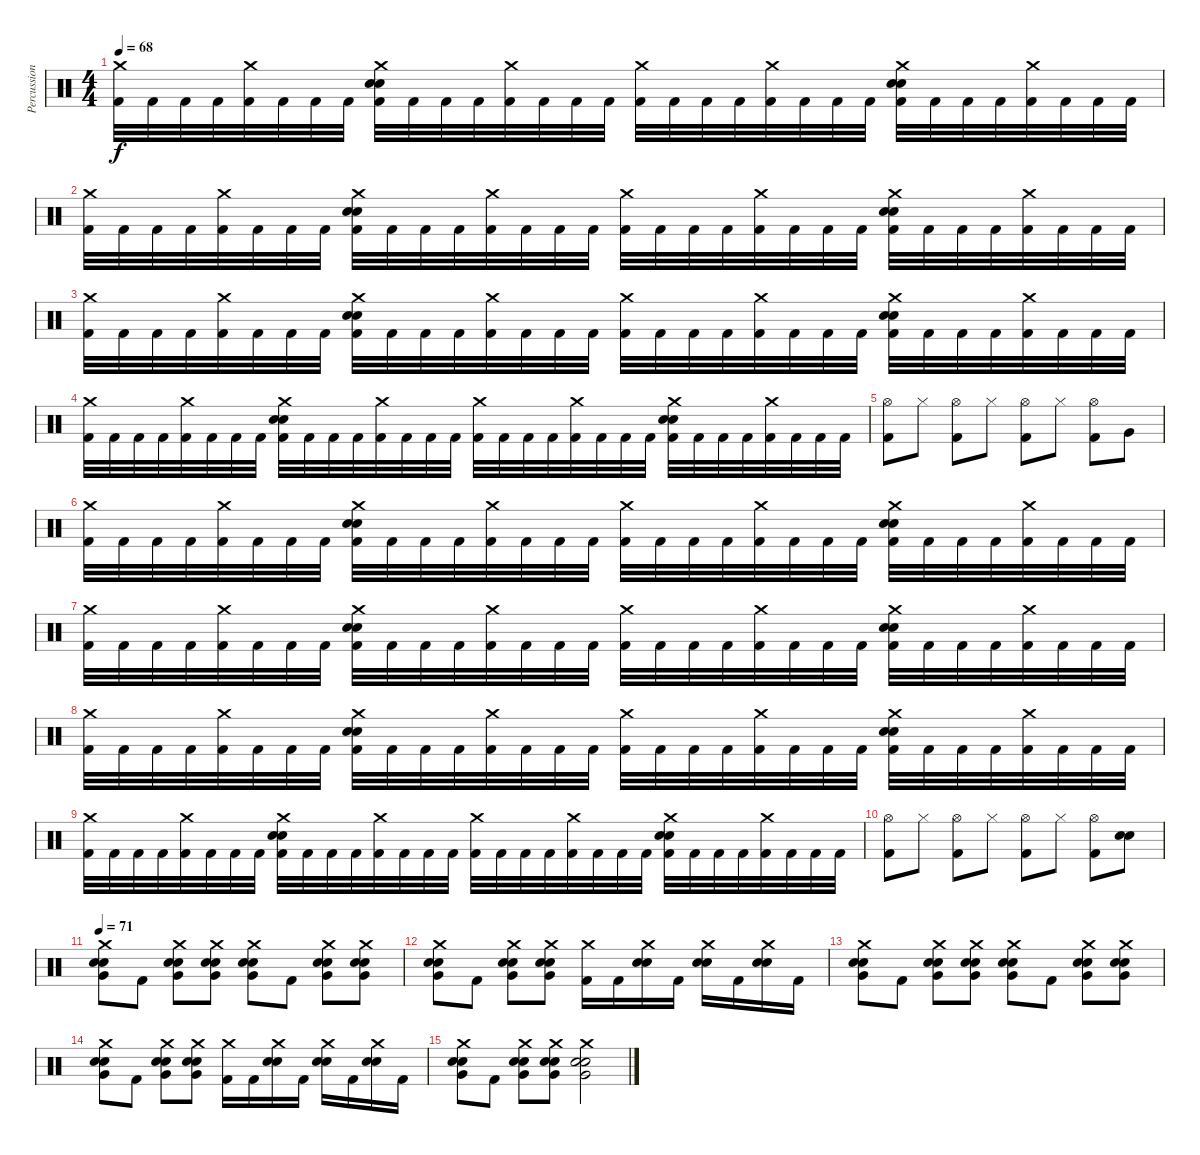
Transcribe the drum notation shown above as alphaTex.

\track ("Percussion" "Percussion") {instrument percussion}
\staff {score}
\articulation defaults
\ts (4 4)
\tempo 68
\clef neutral
\ks c
("Crash medium (hit)" "Kick (hit) 2").32{dy f} "Kick (hit) 2".32 "Kick (hit) 2".32 "Kick (hit) 2".32 ("Crash medium (hit)" "Kick (hit) 2").32 "Kick (hit) 2".32 "Kick (hit) 2".32 "Kick (hit) 2".32 ("Crash medium (hit)" "Electric Snare (hit)" "Electric Snare (hit)" "Kick (hit) 2").32 "Kick (hit) 2".32 "Kick (hit) 2".32 "Kick (hit) 2".32 ("Crash medium (hit)" "Kick (hit) 2").32 "Kick (hit) 2".32 "Kick (hit) 2".32 "Kick (hit) 2".32 ("Crash medium (hit)" "Kick (hit) 2").32 "Kick (hit) 2".32 "Kick (hit) 2".32 "Kick (hit) 2".32 ("Crash medium (hit)" "Kick (hit) 2").32 "Kick (hit) 2".32 "Kick (hit) 2".32 "Kick (hit) 2".32 ("Crash medium (hit)" "Electric Snare (hit)" "Electric Snare (hit)" "Kick (hit) 2").32 "Kick (hit) 2".32 "Kick (hit) 2".32 "Kick (hit) 2".32 ("Crash medium (hit)" "Kick (hit) 2").32 "Kick (hit) 2".32 "Kick (hit) 2".32 "Kick (hit) 2".32 |
("Crash medium (hit)" "Kick (hit) 2").32 "Kick (hit) 2".32 "Kick (hit) 2".32 "Kick (hit) 2".32 ("Crash medium (hit)" "Kick (hit) 2").32 "Kick (hit) 2".32 "Kick (hit) 2".32 "Kick (hit) 2".32 ("Crash medium (hit)" "Electric Snare (hit)" "Electric Snare (hit)" "Kick (hit) 2").32 "Kick (hit) 2".32 "Kick (hit) 2".32 "Kick (hit) 2".32 ("Crash medium (hit)" "Kick (hit) 2").32 "Kick (hit) 2".32 "Kick (hit) 2".32 "Kick (hit) 2".32 ("Crash medium (hit)" "Kick (hit) 2").32 "Kick (hit) 2".32 "Kick (hit) 2".32 "Kick (hit) 2".32 ("Crash medium (hit)" "Kick (hit) 2").32 "Kick (hit) 2".32 "Kick (hit) 2".32 "Kick (hit) 2".32 ("Crash medium (hit)" "Electric Snare (hit)" "Electric Snare (hit)" "Kick (hit) 2").32 "Kick (hit) 2".32 "Kick (hit) 2".32 "Kick (hit) 2".32 ("Crash medium (hit)" "Kick (hit) 2").32 "Kick (hit) 2".32 "Kick (hit) 2".32 "Kick (hit) 2".32 |
("Crash medium (hit)" "Kick (hit) 2").32 "Kick (hit) 2".32 "Kick (hit) 2".32 "Kick (hit) 2".32 ("Crash medium (hit)" "Kick (hit) 2").32 "Kick (hit) 2".32 "Kick (hit) 2".32 "Kick (hit) 2".32 ("Crash medium (hit)" "Electric Snare (hit)" "Electric Snare (hit)" "Kick (hit) 2").32 "Kick (hit) 2".32 "Kick (hit) 2".32 "Kick (hit) 2".32 ("Crash medium (hit)" "Kick (hit) 2").32 "Kick (hit) 2".32 "Kick (hit) 2".32 "Kick (hit) 2".32 ("Crash medium (hit)" "Kick (hit) 2").32 "Kick (hit) 2".32 "Kick (hit) 2".32 "Kick (hit) 2".32 ("Crash medium (hit)" "Kick (hit) 2").32 "Kick (hit) 2".32 "Kick (hit) 2".32 "Kick (hit) 2".32 ("Crash medium (hit)" "Electric Snare (hit)" "Electric Snare (hit)" "Kick (hit) 2").32 "Kick (hit) 2".32 "Kick (hit) 2".32 "Kick (hit) 2".32 ("Crash medium (hit)" "Kick (hit) 2").32 "Kick (hit) 2".32 "Kick (hit) 2".32 "Kick (hit) 2".32 |
("Crash medium (hit)" "Kick (hit) 2").32 "Kick (hit) 2".32 "Kick (hit) 2".32 "Kick (hit) 2".32 ("Crash medium (hit)" "Kick (hit) 2").32 "Kick (hit) 2".32 "Kick (hit) 2".32 "Kick (hit) 2".32 ("Crash medium (hit)" "Electric Snare (hit)" "Electric Snare (hit)" "Kick (hit) 2").32 "Kick (hit) 2".32 "Kick (hit) 2".32 "Kick (hit) 2".32 ("Crash medium (hit)" "Kick (hit) 2").32 "Kick (hit) 2".32 "Kick (hit) 2".32 "Kick (hit) 2".32 ("Crash medium (hit)" "Kick (hit) 2").32 "Kick (hit) 2".32 "Kick (hit) 2".32 "Kick (hit) 2".32 ("Crash medium (hit)" "Kick (hit) 2").32 "Kick (hit) 2".32 "Kick (hit) 2".32 "Kick (hit) 2".32 ("Crash medium (hit)" "Electric Snare (hit)" "Electric Snare (hit)" "Kick (hit) 2").32 "Kick (hit) 2".32 "Kick (hit) 2".32 "Kick (hit) 2".32 ("Crash medium (hit)" "Kick (hit) 2").32 "Kick (hit) 2".32 "Kick (hit) 2".32 "Kick (hit) 2".32 |
("Hi-Hat (open)" "Kick (hit) 2").8 "Hi-Hat (closed)".8 ("Hi-Hat (open)" "Kick (hit) 2").8 "Hi-Hat (closed)".8 ("Hi-Hat (open)" "Kick (hit) 2").8 "Hi-Hat (closed)".8 ("Hi-Hat (open)" "Kick (hit) 2").8 "Very Low Tom (hit)".8 |
("Crash medium (hit)" "Kick (hit) 2").32 "Kick (hit) 2".32 "Kick (hit) 2".32 "Kick (hit) 2".32 ("Crash medium (hit)" "Kick (hit) 2").32 "Kick (hit) 2".32 "Kick (hit) 2".32 "Kick (hit) 2".32 ("Crash medium (hit)" "Electric Snare (hit)" "Electric Snare (hit)" "Kick (hit) 2").32 "Kick (hit) 2".32 "Kick (hit) 2".32 "Kick (hit) 2".32 ("Crash medium (hit)" "Kick (hit) 2").32 "Kick (hit) 2".32 "Kick (hit) 2".32 "Kick (hit) 2".32 ("Crash medium (hit)" "Kick (hit) 2").32 "Kick (hit) 2".32 "Kick (hit) 2".32 "Kick (hit) 2".32 ("Crash medium (hit)" "Kick (hit) 2").32 "Kick (hit) 2".32 "Kick (hit) 2".32 "Kick (hit) 2".32 ("Crash medium (hit)" "Electric Snare (hit)" "Electric Snare (hit)" "Kick (hit) 2").32 "Kick (hit) 2".32 "Kick (hit) 2".32 "Kick (hit) 2".32 ("Crash medium (hit)" "Kick (hit) 2").32 "Kick (hit) 2".32 "Kick (hit) 2".32 "Kick (hit) 2".32 |
("Crash medium (hit)" "Kick (hit) 2").32 "Kick (hit) 2".32 "Kick (hit) 2".32 "Kick (hit) 2".32 ("Crash medium (hit)" "Kick (hit) 2").32 "Kick (hit) 2".32 "Kick (hit) 2".32 "Kick (hit) 2".32 ("Crash medium (hit)" "Electric Snare (hit)" "Electric Snare (hit)" "Kick (hit) 2").32 "Kick (hit) 2".32 "Kick (hit) 2".32 "Kick (hit) 2".32 ("Crash medium (hit)" "Kick (hit) 2").32 "Kick (hit) 2".32 "Kick (hit) 2".32 "Kick (hit) 2".32 ("Crash medium (hit)" "Kick (hit) 2").32 "Kick (hit) 2".32 "Kick (hit) 2".32 "Kick (hit) 2".32 ("Crash medium (hit)" "Kick (hit) 2").32 "Kick (hit) 2".32 "Kick (hit) 2".32 "Kick (hit) 2".32 ("Crash medium (hit)" "Electric Snare (hit)" "Electric Snare (hit)" "Kick (hit) 2").32 "Kick (hit) 2".32 "Kick (hit) 2".32 "Kick (hit) 2".32 ("Crash medium (hit)" "Kick (hit) 2").32 "Kick (hit) 2".32 "Kick (hit) 2".32 "Kick (hit) 2".32 |
("Crash medium (hit)" "Kick (hit) 2").32 "Kick (hit) 2".32 "Kick (hit) 2".32 "Kick (hit) 2".32 ("Crash medium (hit)" "Kick (hit) 2").32 "Kick (hit) 2".32 "Kick (hit) 2".32 "Kick (hit) 2".32 ("Crash medium (hit)" "Electric Snare (hit)" "Electric Snare (hit)" "Kick (hit) 2").32 "Kick (hit) 2".32 "Kick (hit) 2".32 "Kick (hit) 2".32 ("Crash medium (hit)" "Kick (hit) 2").32 "Kick (hit) 2".32 "Kick (hit) 2".32 "Kick (hit) 2".32 ("Crash medium (hit)" "Kick (hit) 2").32 "Kick (hit) 2".32 "Kick (hit) 2".32 "Kick (hit) 2".32 ("Crash medium (hit)" "Kick (hit) 2").32 "Kick (hit) 2".32 "Kick (hit) 2".32 "Kick (hit) 2".32 ("Crash medium (hit)" "Electric Snare (hit)" "Electric Snare (hit)" "Kick (hit) 2").32 "Kick (hit) 2".32 "Kick (hit) 2".32 "Kick (hit) 2".32 ("Crash medium (hit)" "Kick (hit) 2").32 "Kick (hit) 2".32 "Kick (hit) 2".32 "Kick (hit) 2".32 |
("Crash medium (hit)" "Kick (hit) 2").32 "Kick (hit) 2".32 "Kick (hit) 2".32 "Kick (hit) 2".32 ("Crash medium (hit)" "Kick (hit) 2").32 "Kick (hit) 2".32 "Kick (hit) 2".32 "Kick (hit) 2".32 ("Crash medium (hit)" "Electric Snare (hit)" "Electric Snare (hit)" "Kick (hit) 2").32 "Kick (hit) 2".32 "Kick (hit) 2".32 "Kick (hit) 2".32 ("Crash medium (hit)" "Kick (hit) 2").32 "Kick (hit) 2".32 "Kick (hit) 2".32 "Kick (hit) 2".32 ("Crash medium (hit)" "Kick (hit) 2").32 "Kick (hit) 2".32 "Kick (hit) 2".32 "Kick (hit) 2".32 ("Crash medium (hit)" "Kick (hit) 2").32 "Kick (hit) 2".32 "Kick (hit) 2".32 "Kick (hit) 2".32 ("Crash medium (hit)" "Electric Snare (hit)" "Electric Snare (hit)" "Kick (hit) 2").32 "Kick (hit) 2".32 "Kick (hit) 2".32 "Kick (hit) 2".32 ("Crash medium (hit)" "Kick (hit) 2").32 "Kick (hit) 2".32 "Kick (hit) 2".32 "Kick (hit) 2".32 |
("Hi-Hat (open)" "Kick (hit) 2").8 "Hi-Hat (closed)".8 ("Hi-Hat (open)" "Kick (hit) 2").8 "Hi-Hat (closed)".8 ("Hi-Hat (open)" "Kick (hit) 2").8 "Hi-Hat (closed)".8 ("Hi-Hat (open)" "Kick (hit) 2").8 ("Electric Snare (hit)" "Electric Snare (hit)").8 |
\tempo 71
("Crash medium (hit)" "Electric Snare (hit)" "Electric Snare (hit)" "Very Low Tom (hit)").8 "Kick (hit) 2".8 ("Crash medium (hit)" "Electric Snare (hit)" "Electric Snare (hit)" "Very Low Tom (hit)").8 ("Crash medium (hit)" "Electric Snare (hit)" "Electric Snare (hit)" "Very Low Tom (hit)").8 ("Crash medium (hit)" "Electric Snare (hit)" "Electric Snare (hit)" "Very Low Tom (hit)").8 "Kick (hit) 2".8 ("Crash medium (hit)" "Electric Snare (hit)" "Electric Snare (hit)" "Very Low Tom (hit)").8 ("Crash medium (hit)" "Electric Snare (hit)" "Electric Snare (hit)" "Very Low Tom (hit)").8 |
("Crash medium (hit)" "Electric Snare (hit)" "Electric Snare (hit)" "Very Low Tom (hit)").8 "Kick (hit) 2".8 ("Crash medium (hit)" "Electric Snare (hit)" "Electric Snare (hit)" "Very Low Tom (hit)").8 ("Crash medium (hit)" "Electric Snare (hit)" "Electric Snare (hit)" "Very Low Tom (hit)").8 ("Crash medium (hit)" "Kick (hit) 2").16 "Kick (hit) 2".16 ("Crash medium (hit)" "Electric Snare (hit)" "Electric Snare (hit)").16 "Kick (hit) 2".16 ("Crash medium (hit)" "Electric Snare (hit)" "Electric Snare (hit)").16 "Kick (hit) 2".16 ("Crash medium (hit)" "Electric Snare (hit)" "Electric Snare (hit)").16 "Kick (hit) 2".16 |
("Crash medium (hit)" "Electric Snare (hit)" "Electric Snare (hit)" "Very Low Tom (hit)").8 "Kick (hit) 2".8 ("Crash medium (hit)" "Electric Snare (hit)" "Electric Snare (hit)" "Very Low Tom (hit)").8 ("Crash medium (hit)" "Electric Snare (hit)" "Electric Snare (hit)" "Very Low Tom (hit)").8 ("Crash medium (hit)" "Electric Snare (hit)" "Electric Snare (hit)" "Very Low Tom (hit)").8 "Kick (hit) 2".8 ("Crash medium (hit)" "Electric Snare (hit)" "Electric Snare (hit)" "Very Low Tom (hit)").8 ("Crash medium (hit)" "Electric Snare (hit)" "Electric Snare (hit)" "Very Low Tom (hit)").8 |
("Crash medium (hit)" "Electric Snare (hit)" "Electric Snare (hit)" "Very Low Tom (hit)").8 "Kick (hit) 2".8 ("Crash medium (hit)" "Electric Snare (hit)" "Electric Snare (hit)" "Very Low Tom (hit)").8 ("Crash medium (hit)" "Electric Snare (hit)" "Electric Snare (hit)" "Very Low Tom (hit)").8 ("Crash medium (hit)" "Kick (hit) 2").16 "Kick (hit) 2".16 ("Crash medium (hit)" "Electric Snare (hit)" "Electric Snare (hit)").16 "Kick (hit) 2".16 ("Crash medium (hit)" "Electric Snare (hit)" "Electric Snare (hit)").16 "Kick (hit) 2".16 ("Crash medium (hit)" "Electric Snare (hit)" "Electric Snare (hit)").16 "Kick (hit) 2".16 |
("Crash medium (hit)" "Electric Snare (hit)" "Electric Snare (hit)" "Very Low Tom (hit)").8 "Kick (hit) 2".8 ("Crash medium (hit)" "Electric Snare (hit)" "Electric Snare (hit)" "Very Low Tom (hit)").8 ("Crash medium (hit)" "Electric Snare (hit)" "Electric Snare (hit)" "Very Low Tom (hit)").8 ("Crash medium (hit)" "Electric Snare (hit)" "Electric Snare (hit)" "Very Low Tom (hit)").2
